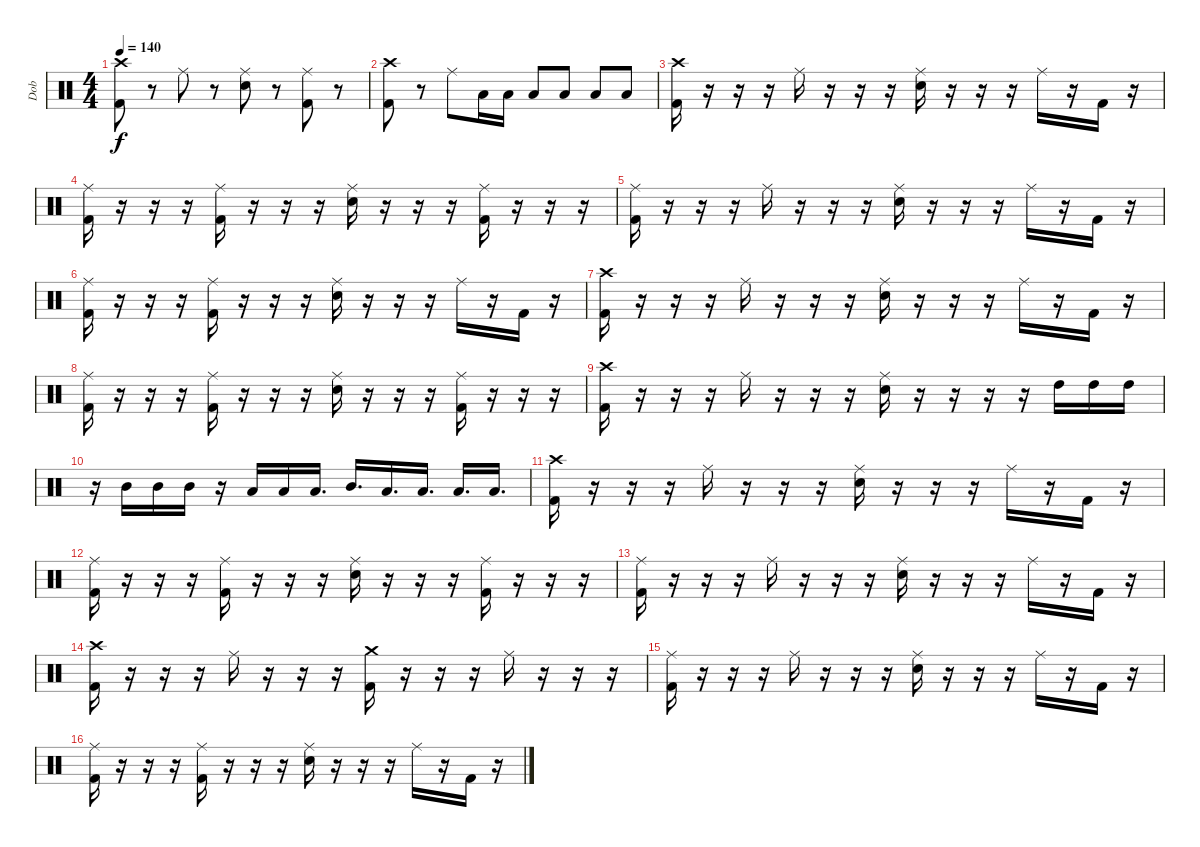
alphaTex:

\track ("Dob" "Dob") {instrument percussion}
\staff {score}
\articulation defaults
\ts (4 4)
\tempo 140
\clef neutral
\ks c
("Crash high (hit)" "Kick (hit) 2").8{dy f} r.8 "Ride (middle)".8 r.8 ("Ride (middle)" "Electric Snare (hit)").8 r.8 ("Ride (middle)" "Kick (hit) 2").8 r.8 |
("Crash high (hit)" "Kick (hit) 2").8 r.8 "Ride (middle)".8 "Low Tom (hit)".16 "Low Tom (hit)".16 "Low Tom (hit)".8 "Low Tom (hit)".8 "Low Tom (hit)".8 "Low Tom (hit)".8 |
("Crash high (hit)" "Kick (hit) 2").16 r.16 r.16 r.16 "Ride (middle)".16 r.16 r.16 r.16 ("Electric Snare (hit)" "Ride (middle)").16 r.16 r.16 r.16 "Ride (middle)".16 r.16 "Kick (hit) 2".16 r.16 |
("Ride (middle)" "Kick (hit) 2").16 r.16 r.16 r.16 ("Ride (middle)" "Kick (hit) 2").16 r.16 r.16 r.16 ("Ride (middle)" "Electric Snare (hit)").16 r.16 r.16 r.16 ("Ride (middle)" "Kick (hit) 2").16 r.16 r.16 r.16 |
("Ride (middle)" "Kick (hit) 2").16 r.16 r.16 r.16 "Ride (middle)".16 r.16 r.16 r.16 ("Ride (middle)" "Electric Snare (hit)").16 r.16 r.16 r.16 "Ride (middle)".16 r.16 "Kick (hit) 2".16 r.16 |
("Ride (middle)" "Kick (hit) 2").16 r.16 r.16 r.16 ("Ride (middle)" "Kick (hit) 2").16 r.16 r.16 r.16 ("Ride (middle)" "Electric Snare (hit)").16 r.16 r.16 r.16 "Ride (middle)".16 r.16 "Kick (hit) 2".16 r.16 |
("Crash high (hit)" "Kick (hit) 2").16 r.16 r.16 r.16 "Ride (middle)".16 r.16 r.16 r.16 ("Electric Snare (hit)" "Ride (middle)").16 r.16 r.16 r.16 "Ride (middle)".16 r.16 "Kick (hit) 2".16 r.16 |
("Ride (middle)" "Kick (hit) 2").16 r.16 r.16 r.16 ("Ride (middle)" "Kick (hit) 2").16 r.16 r.16 r.16 ("Ride (middle)" "Electric Snare (hit)").16 r.16 r.16 r.16 ("Ride (middle)" "Kick (hit) 2").16 r.16 r.16 r.16 |
("Crash high (hit)" "Kick (hit) 2").16 r.16 r.16 r.16 "Ride (middle)".16 r.16 r.16 r.16 ("Electric Snare (hit)" "Ride (middle)").16 r.16 r.16 r.16 r.16 "High Tom (hit)".16 "High Tom (hit)".16 "High Tom (hit)".16 |
r.16 "Mid Tom (hit)".16 "Mid Tom (hit)".16 "Mid Tom (hit)".16 r.16 "Low Tom (hit)".16 "Low Tom (hit)".16 "Low Tom (hit)".16{d} "Mid Tom (hit)".16{d} "Low Tom (hit)".16{d} "Low Floor Tom (hit)".16{d} "Low Floor Tom (hit)".16{d} "Low Floor Tom (hit)".16{d} |
("Crash high (hit)" "Kick (hit) 2").16 r.16 r.16 r.16 "Ride (middle)".16 r.16 r.16 r.16 ("Electric Snare (hit)" "Ride (middle)").16 r.16 r.16 r.16 "Ride (middle)".16 r.16 "Kick (hit) 2".16 r.16 |
("Ride (middle)" "Kick (hit) 2").16 r.16 r.16 r.16 ("Ride (middle)" "Kick (hit) 2").16 r.16 r.16 r.16 ("Ride (middle)" "Electric Snare (hit)").16 r.16 r.16 r.16 ("Ride (middle)" "Kick (hit) 2").16 r.16 r.16 r.16 |
("Ride (middle)" "Kick (hit) 2").16 r.16 r.16 r.16 "Ride (middle)".16 r.16 r.16 r.16 ("Ride (middle)" "Electric Snare (hit)").16 r.16 r.16 r.16 "Ride (middle)".16 r.16 "Kick (hit) 2".16 r.16 |
("Crash high (hit)" "Kick (hit) 2").16 r.16 r.16 r.16 "Ride (middle)".16 r.16 r.16 r.16 ("Crash medium (hit)" "Kick (hit) 2").16 r.16 r.16 r.16 "Ride (middle)".16 r.16 r.16 r.16 |
("Ride (middle)" "Kick (hit) 2").16 r.16 r.16 r.16 "Ride (middle)".16 r.16 r.16 r.16 ("Ride (middle)" "Electric Snare (hit)").16 r.16 r.16 r.16 "Ride (middle)".16 r.16 "Kick (hit) 2".16 r.16 |
("Ride (middle)" "Kick (hit) 2").16 r.16 r.16 r.16 ("Ride (middle)" "Kick (hit) 2").16 r.16 r.16 r.16 ("Ride (middle)" "Electric Snare (hit)").16 r.16 r.16 r.16 "Ride (middle)".16 r.16 "Kick (hit) 2".16 r.16
